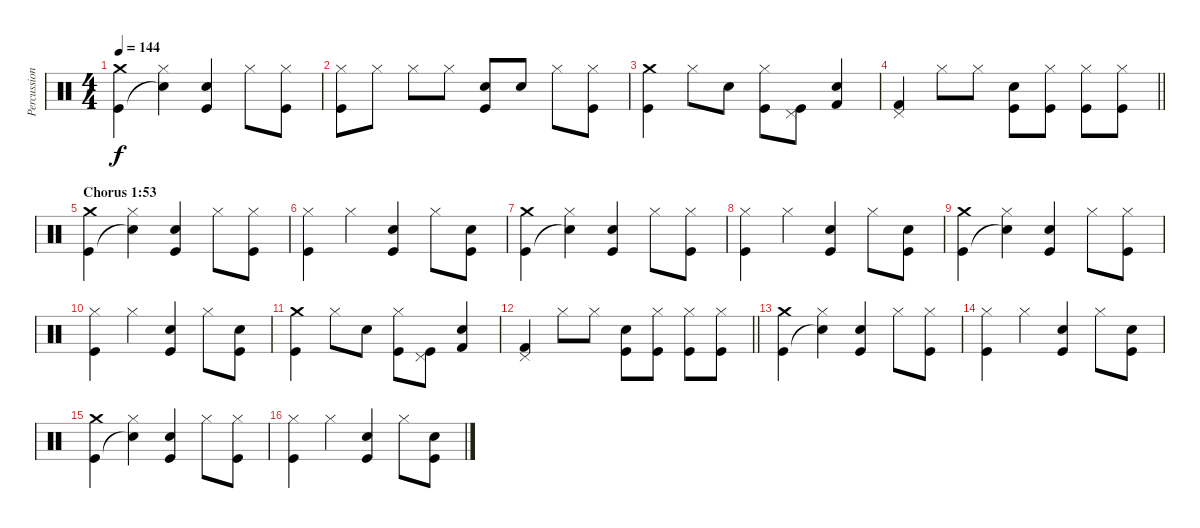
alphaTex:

\track ("Percussion" "Percussion") {instrument percussion}
\staff {score}
\articulation defaults
\ts (4 4)
\tempo 144
\clef neutral
\ks c
("Crash medium (hit)" "Kick (hit)").4{dy f} ("Hi-Hat (closed)" "Snare (hit)"{t}).4 ("Electric Snare (hit)" "Kick (hit)").4 "Hi-Hat (closed)".8 ("Hi-Hat (closed)" "Kick (hit)").8 |
("Hi-Hat (closed)" "Kick (hit)").8 "Hi-Hat (closed)".8 "Hi-Hat (closed)".8 "Hi-Hat (closed)".8 ("Electric Snare (hit)" "Kick (hit)").8 "Electric Snare (hit)".8 "Hi-Hat (closed)".8 ("Hi-Hat (closed)" "Kick (hit)").8 |
("Crash medium (hit)" "Kick (hit)").4 "Hi-Hat (closed)".8 "Electric Snare (hit)".8 ("Hi-Hat (closed)" "Kick (hit)").8 ("Pedal Hi-Hat (hit)" "Kick (hit)").8 ("Electric Snare (hit)" "Kick (hit) 2").4 |
\barLineRight lightlight
("Pedal Hi-Hat (hit)" "Kick (hit) 2").4 "Hi-Hat (closed)".8 "Hi-Hat (closed)".8 ("Electric Snare (hit)" "Kick (hit)").8 ("Hi-Hat (closed)" "Kick (hit)").8 ("Hi-Hat (closed)" "Kick (hit)").8 ("Hi-Hat (closed)" "Kick (hit)").8 |
\section ("" "Chorus 1:53")
("Crash medium (hit)" "Kick (hit)").4 ("Hi-Hat (closed)" "Snare (hit)"{t}).4 ("Electric Snare (hit)" "Kick (hit)").4 "Hi-Hat (closed)".8 ("Hi-Hat (closed)" "Kick (hit)").8 |
("Hi-Hat (closed)" "Kick (hit)").4 "Hi-Hat (closed)".4 ("Electric Snare (hit)" "Kick (hit)").4 "Hi-Hat (closed)".8 ("Electric Snare (hit)" "Kick (hit)").8 |
("Crash medium (hit)" "Kick (hit)").4 ("Hi-Hat (closed)" "Snare (hit)"{t}).4 ("Electric Snare (hit)" "Kick (hit)").4 "Hi-Hat (closed)".8 ("Hi-Hat (closed)" "Kick (hit)").8 |
("Hi-Hat (closed)" "Kick (hit)").4 "Hi-Hat (closed)".4 ("Electric Snare (hit)" "Kick (hit)").4 "Hi-Hat (closed)".8 ("Electric Snare (hit)" "Kick (hit)").8 |
("Crash medium (hit)" "Kick (hit)").4 ("Hi-Hat (closed)" "Snare (hit)"{t}).4 ("Electric Snare (hit)" "Kick (hit)").4 "Hi-Hat (closed)".8 ("Hi-Hat (closed)" "Kick (hit)").8 |
("Hi-Hat (closed)" "Kick (hit)").4 "Hi-Hat (closed)".4 ("Electric Snare (hit)" "Kick (hit)").4 "Hi-Hat (closed)".8 ("Electric Snare (hit)" "Kick (hit)").8 |
("Crash medium (hit)" "Kick (hit)").4 "Hi-Hat (closed)".8 "Electric Snare (hit)".8 ("Hi-Hat (closed)" "Kick (hit)").8 ("Pedal Hi-Hat (hit)" "Kick (hit)").8 ("Electric Snare (hit)" "Kick (hit) 2").4 |
\barLineRight lightlight
("Pedal Hi-Hat (hit)" "Kick (hit) 2").4 "Hi-Hat (closed)".8 "Hi-Hat (closed)".8 ("Electric Snare (hit)" "Kick (hit)").8 ("Hi-Hat (closed)" "Kick (hit)").8 ("Hi-Hat (closed)" "Kick (hit)").8 ("Hi-Hat (closed)" "Kick (hit)").8 |
("Crash medium (hit)" "Kick (hit)").4 ("Hi-Hat (closed)" "Snare (hit)"{t}).4 ("Electric Snare (hit)" "Kick (hit)").4 "Hi-Hat (closed)".8 ("Hi-Hat (closed)" "Kick (hit)").8 |
("Hi-Hat (closed)" "Kick (hit)").4 "Hi-Hat (closed)".4 ("Electric Snare (hit)" "Kick (hit)").4 "Hi-Hat (closed)".8 ("Electric Snare (hit)" "Kick (hit)").8 |
("Crash medium (hit)" "Kick (hit)").4 ("Hi-Hat (closed)" "Snare (hit)"{t}).4 ("Electric Snare (hit)" "Kick (hit)").4 "Hi-Hat (closed)".8 ("Hi-Hat (closed)" "Kick (hit)").8 |
("Hi-Hat (closed)" "Kick (hit)").4 "Hi-Hat (closed)".4 ("Electric Snare (hit)" "Kick (hit)").4 "Hi-Hat (closed)".8 ("Electric Snare (hit)" "Kick (hit)").8
